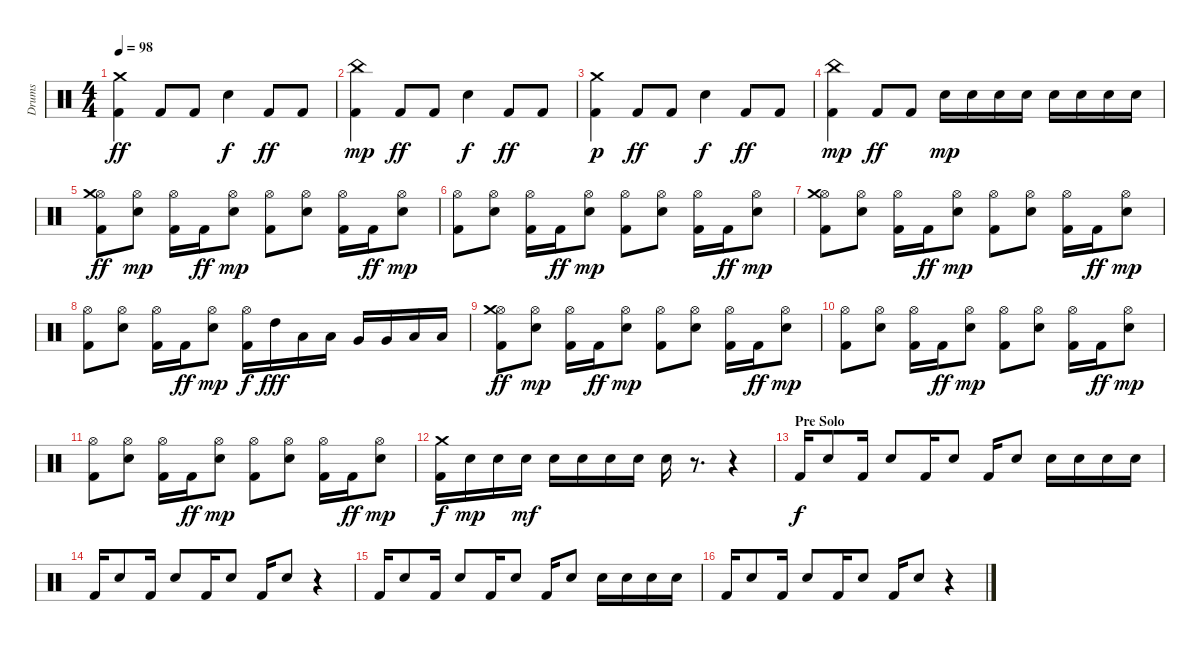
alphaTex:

\track ("Drums" "Drums") {instrument percussion}
\staff {score}
\articulation defaults
\ts (4 4)
\tempo 98
\clef neutral
\ks c
("Kick (hit) 2" "Crash medium (hit)").4{dy ff} "Kick (hit) 2".8 "Kick (hit) 2".8 "Snare (hit) 2".4{dy f} "Kick (hit) 2".8{dy ff} "Kick (hit) 2".8 |
("Kick (hit) 2" "China (hit)").4{dy mp} "Kick (hit) 2".8{dy ff} "Kick (hit) 2".8 "Snare (hit) 2".4{dy f} "Kick (hit) 2".8{dy ff} "Kick (hit) 2".8 |
("Kick (hit) 2" "Crash medium (hit)").4{dy p} "Kick (hit) 2".8{dy ff} "Kick (hit) 2".8 "Snare (hit) 2".4{dy f} "Kick (hit) 2".8{dy ff} "Kick (hit) 2".8 |
("Kick (hit) 2" "China (hit)").4{dy mp} "Kick (hit) 2".8{dy ff} "Kick (hit) 2".8 "Snare (hit) 2".16{dy mp} "Snare (hit) 2".16 "Snare (hit) 2".16 "Snare (hit) 2".16 "Snare (hit) 2".16 "Snare (hit) 2".16 "Snare (hit) 2".16 "Snare (hit) 2".16 |
("Kick (hit) 2" "Hi-Hat (open)" "Crash medium (hit)").8{dy ff} ("Hi-Hat (open)" "Snare (hit) 2").8{dy mp} ("Kick (hit) 2" "Hi-Hat (open)").16 "Kick (hit) 2".16{dy ff} ("Hi-Hat (open)" "Snare (hit) 2").8{dy mp} ("Kick (hit) 2" "Hi-Hat (open)").8 ("Hi-Hat (open)" "Snare (hit) 2").8 ("Kick (hit) 2" "Hi-Hat (open)").16 "Kick (hit) 2".16{dy ff} ("Hi-Hat (open)" "Snare (hit) 2").8{dy mp} |
("Kick (hit) 2" "Hi-Hat (open)").8 ("Hi-Hat (open)" "Snare (hit) 2").8 ("Kick (hit) 2" "Hi-Hat (open)").16 "Kick (hit) 2".16{dy ff} ("Hi-Hat (open)" "Snare (hit) 2").8{dy mp} ("Kick (hit) 2" "Hi-Hat (open)").8 ("Hi-Hat (open)" "Snare (hit) 2").8 ("Kick (hit) 2" "Hi-Hat (open)").16 "Kick (hit) 2".16{dy ff} ("Hi-Hat (open)" "Snare (hit) 2").8{dy mp} |
("Kick (hit) 2" "Hi-Hat (open)" "Crash medium (hit)").8 ("Hi-Hat (open)" "Snare (hit) 2").8 ("Kick (hit) 2" "Hi-Hat (open)").16 "Kick (hit) 2".16{dy ff} ("Hi-Hat (open)" "Snare (hit) 2").8{dy mp} ("Kick (hit) 2" "Hi-Hat (open)").8 ("Hi-Hat (open)" "Snare (hit) 2").8 ("Kick (hit) 2" "Hi-Hat (open)").16 "Kick (hit) 2".16{dy ff} ("Hi-Hat (open)" "Snare (hit) 2").8{dy mp} |
("Kick (hit) 2" "Hi-Hat (open)").8 ("Hi-Hat (open)" "Snare (hit) 2").8 ("Kick (hit) 2" "Hi-Hat (open)").16 "Kick (hit) 2".16{dy ff} ("Hi-Hat (open)" "Snare (hit) 2").8{dy mp} ("Kick (hit) 2" "Hi-Hat (open)").16{dy f} "High Tom (hit)".16{dy fff} "Low Tom (hit)".16 "Low Tom (hit)".16 "Very Low Tom (hit)".16 "Very Low Tom (hit)".16 "Low Floor Tom (hit)".16 "Low Floor Tom (hit)".16 |
("Kick (hit) 2" "Hi-Hat (open)" "Crash medium (hit)").8{dy ff} ("Hi-Hat (open)" "Snare (hit) 2").8{dy mp} ("Kick (hit) 2" "Hi-Hat (open)").16 "Kick (hit) 2".16{dy ff} ("Hi-Hat (open)" "Snare (hit) 2").8{dy mp} ("Kick (hit) 2" "Hi-Hat (open)").8 ("Hi-Hat (open)" "Snare (hit) 2").8 ("Kick (hit) 2" "Hi-Hat (open)").16 "Kick (hit) 2".16{dy ff} ("Hi-Hat (open)" "Snare (hit) 2").8{dy mp} |
("Kick (hit) 2" "Hi-Hat (open)").8 ("Hi-Hat (open)" "Snare (hit) 2").8 ("Kick (hit) 2" "Hi-Hat (open)").16 "Kick (hit) 2".16{dy ff} ("Hi-Hat (open)" "Snare (hit) 2").8{dy mp} ("Kick (hit) 2" "Hi-Hat (open)").8 ("Hi-Hat (open)" "Snare (hit) 2").8 ("Kick (hit) 2" "Hi-Hat (open)").16 "Kick (hit) 2".16{dy ff} ("Hi-Hat (open)" "Snare (hit) 2").8{dy mp} |
("Kick (hit) 2" "Hi-Hat (open)").8 ("Hi-Hat (open)" "Snare (hit) 2").8 ("Kick (hit) 2" "Hi-Hat (open)").16 "Kick (hit) 2".16{dy ff} ("Hi-Hat (open)" "Snare (hit) 2").8{dy mp} ("Kick (hit) 2" "Hi-Hat (open)").8 ("Hi-Hat (open)" "Snare (hit) 2").8 ("Kick (hit) 2" "Hi-Hat (open)").16 "Kick (hit) 2".16{dy ff} ("Hi-Hat (open)" "Snare (hit) 2").8{dy mp} |
("Kick (hit) 2" "Crash medium (hit)").16{dy f} "Snare (hit) 2".16{dy mp} "Snare (hit) 2".16 "Snare (hit) 2".16{dy mf} "Snare (hit) 2".16 "Snare (hit) 2".16 "Snare (hit) 2".16 "Snare (hit) 2".16 "Snare (hit) 2".16 r.8{d} r.4 |
\section ("" "Pre Solo")
"Kick (hit) 2".16{dy f} "Snare (hit) 2".8 "Kick (hit) 2".16 "Snare (hit) 2".8 "Kick (hit) 2".16 "Snare (hit) 2".8 "Kick (hit) 2".16 "Snare (hit) 2".8 "Snare (hit) 2".16 "Snare (hit) 2".16 "Snare (hit) 2".16 "Snare (hit) 2".16 |
"Kick (hit) 2".16 "Snare (hit) 2".8 "Kick (hit) 2".16 "Snare (hit) 2".8 "Kick (hit) 2".16 "Snare (hit) 2".8 "Kick (hit) 2".16 "Snare (hit) 2".8 r.4 |
"Kick (hit) 2".16 "Snare (hit) 2".8 "Kick (hit) 2".16 "Snare (hit) 2".8 "Kick (hit) 2".16 "Snare (hit) 2".8 "Kick (hit) 2".16 "Snare (hit) 2".8 "Snare (hit) 2".16 "Snare (hit) 2".16 "Snare (hit) 2".16 "Snare (hit) 2".16 |
"Kick (hit) 2".16 "Snare (hit) 2".8 "Kick (hit) 2".16 "Snare (hit) 2".8 "Kick (hit) 2".16 "Snare (hit) 2".8 "Kick (hit) 2".16 "Snare (hit) 2".8 r.4
